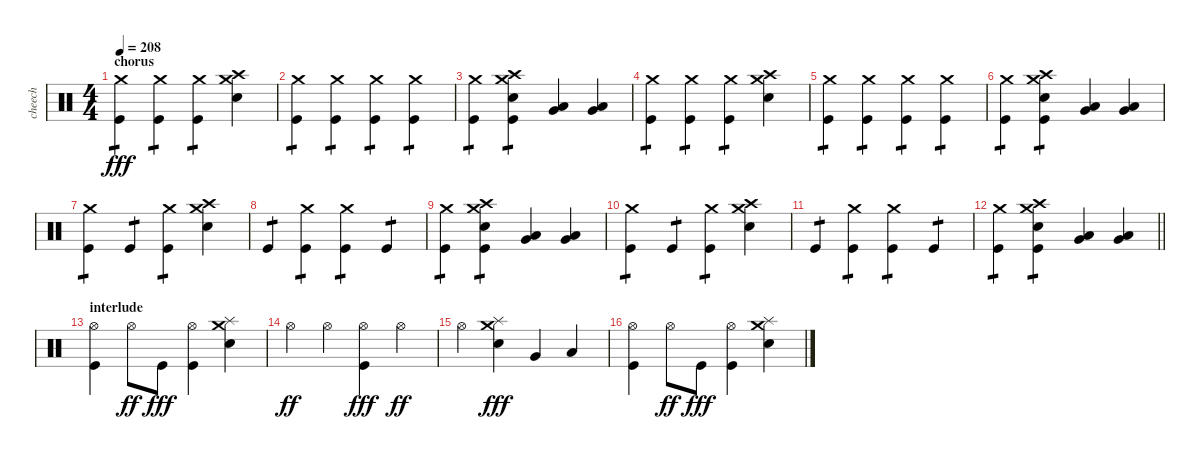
\track ("cheech" "cheech") {instrument percussion}
\staff {score}
\articulation defaults
\ts (4 4)
\section ("" "chorus")
\tempo 208
\clef neutral
\ks c
("Crash medium (hit)" "Kick (hit)").4{tp 1 dy fff} ("Crash medium (hit)" "Kick (hit)").4{tp 1} ("Crash medium (hit)" "Kick (hit)").4{tp 1} ("Crash medium (hit)" "Crash high (hit)" "Electric Snare (hit)").4 |
("Crash medium (hit)" "Kick (hit)").4{tp 1} ("Crash medium (hit)" "Kick (hit)").4{tp 1} ("Crash medium (hit)" "Kick (hit)").4{tp 1} ("Crash medium (hit)" "Kick (hit)").4{tp 1} |
("Crash medium (hit)" "Kick (hit)").4{tp 1} ("Crash medium (hit)" "Crash high (hit)" "Electric Snare (hit)" "Kick (hit)").4{tp 1} ("Low Tom (hit)" "Very Low Tom (hit)").4 ("Very Low Tom (hit)" "Low Floor Tom (hit)").4 |
("Crash medium (hit)" "Kick (hit)").4{tp 1} ("Crash medium (hit)" "Kick (hit)").4{tp 1} ("Crash medium (hit)" "Kick (hit)").4{tp 1} ("Crash medium (hit)" "Crash high (hit)" "Electric Snare (hit)").4 |
("Crash medium (hit)" "Kick (hit)").4{tp 1} ("Crash medium (hit)" "Kick (hit)").4{tp 1} ("Crash medium (hit)" "Kick (hit)").4{tp 1} ("Crash medium (hit)" "Kick (hit)").4{tp 1} |
("Crash medium (hit)" "Kick (hit)").4{tp 1} ("Crash medium (hit)" "Crash high (hit)" "Electric Snare (hit)" "Kick (hit)").4{tp 1} ("Low Tom (hit)" "Very Low Tom (hit)").4 ("Very Low Tom (hit)" "Low Floor Tom (hit)").4 |
("Crash medium (hit)" "Kick (hit)").4{tp 1} "Kick (hit)".4{tp 1} ("Crash medium (hit)" "Kick (hit)").4{tp 1} ("Crash medium (hit)" "Crash high (hit)" "Electric Snare (hit)").4 |
"Kick (hit)".4{tp 1} ("Crash medium (hit)" "Kick (hit)").4{tp 1} ("Crash medium (hit)" "Kick (hit)").4{tp 1} "Kick (hit)".4{tp 1} |
("Crash medium (hit)" "Kick (hit)").4{tp 1} ("Crash medium (hit)" "Crash high (hit)" "Electric Snare (hit)" "Kick (hit)").4{tp 1} ("Low Tom (hit)" "Very Low Tom (hit)").4 ("Very Low Tom (hit)" "Low Floor Tom (hit)").4 |
("Crash medium (hit)" "Kick (hit)").4{tp 1} "Kick (hit)".4{tp 1} ("Crash medium (hit)" "Kick (hit)").4{tp 1} ("Crash medium (hit)" "Crash high (hit)" "Electric Snare (hit)").4 |
"Kick (hit)".4{tp 1} ("Crash medium (hit)" "Kick (hit)").4{tp 1} ("Crash medium (hit)" "Kick (hit)").4{tp 1} "Kick (hit)".4{tp 1} |
\barLineRight lightlight
("Crash medium (hit)" "Kick (hit)").4{tp 1} ("Crash medium (hit)" "Crash high (hit)" "Electric Snare (hit)" "Kick (hit)").4{tp 1} ("Low Tom (hit)" "Very Low Tom (hit)").4 ("Very Low Tom (hit)" "Low Floor Tom (hit)").4 |
\section ("" "interlude")
("Hi-Hat (open)" "Kick (hit)").4 "Hi-Hat (open)".8{dy ff} "Kick (hit)".8{dy fff} ("Hi-Hat (open)" "Kick (hit)").4 ("Crash medium (hit)" "Splash (hit)" "Electric Snare (hit)").4 |
"Hi-Hat (open)".4{dy ff} "Hi-Hat (open)".4 ("Hi-Hat (open)" "Kick (hit)").4{dy fff} "Hi-Hat (open)".4{dy ff} |
"Hi-Hat (open)".4 ("Crash medium (hit)" "Splash (hit)" "Electric Snare (hit)").4{dy fff} "Very Low Tom (hit)".4 "Low Floor Tom (hit)".4 |
("Hi-Hat (open)" "Kick (hit)").4 "Hi-Hat (open)".8{dy ff} "Kick (hit)".8{dy fff} ("Hi-Hat (open)" "Kick (hit)").4 ("Crash medium (hit)" "Splash (hit)" "Electric Snare (hit)").4
